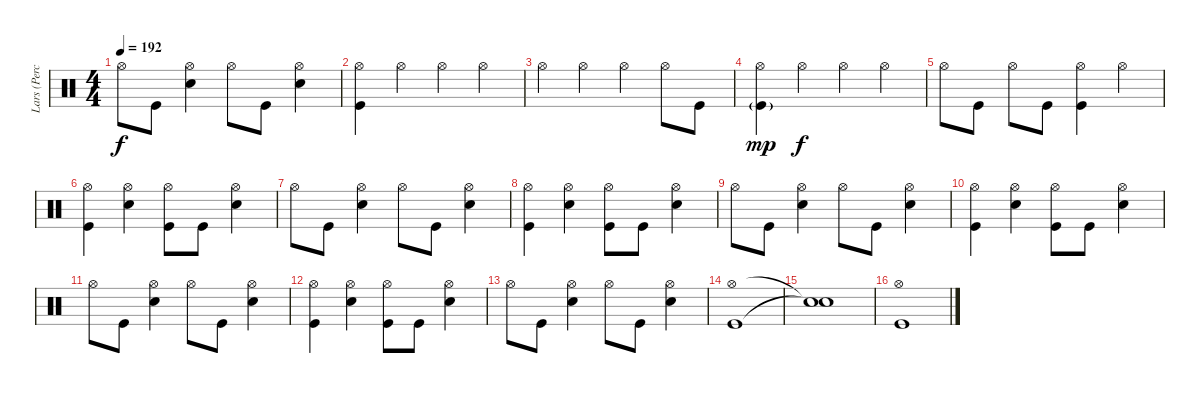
\track ("Lars (Percussion)" "Lars (Perc") {instrument percussion}
\staff {score}
\articulation defaults
\ts (4 4)
\tempo 192
\clef neutral
\ks c "Hi-Hat (open)".8{dy f} "Kick (hit)".8
("Hi-Hat (open)" "Snare (hit) 2").4 "Hi-Hat (open)".8 "Kick (hit)".8 ("Hi-Hat (open)" "Snare (hit) 2").4 |
("Hi-Hat (open)" "Kick (hit)").4 "Hi-Hat (open)".4 "Hi-Hat (open)".4 "Hi-Hat (open)".4 |
"Hi-Hat (open)".4 "Hi-Hat (open)".4 "Hi-Hat (open)".4 "Hi-Hat (open)".8 "Kick (hit)".8 |
("Hi-Hat (open)" "Kick (hit)"{g}).4{dy mp} "Hi-Hat (open)".4{dy f} "Hi-Hat (open)".4 "Hi-Hat (open)".4 |
"Hi-Hat (open)".8 "Kick (hit)".8 "Hi-Hat (open)".8 "Kick (hit)".8 ("Hi-Hat (open)" "Kick (hit)").4 "Hi-Hat (open)".4 |
("Hi-Hat (open)" "Kick (hit)").4 ("Hi-Hat (open)" "Snare (hit) 2").4 ("Hi-Hat (open)" "Kick (hit)").8 "Kick (hit)".8 ("Hi-Hat (open)" "Snare (hit) 2").4 |
"Hi-Hat (open)".8 "Kick (hit)".8 ("Hi-Hat (open)" "Snare (hit) 2").4 "Hi-Hat (open)".8 "Kick (hit)".8 ("Hi-Hat (open)" "Snare (hit) 2").4 |
("Hi-Hat (open)" "Kick (hit)").4 ("Hi-Hat (open)" "Snare (hit) 2").4 ("Hi-Hat (open)" "Kick (hit)").8 "Kick (hit)".8 ("Hi-Hat (open)" "Snare (hit) 2").4 |
"Hi-Hat (open)".8 "Kick (hit)".8 ("Hi-Hat (open)" "Snare (hit) 2").4 "Hi-Hat (open)".8 "Kick (hit)".8 ("Hi-Hat (open)" "Snare (hit) 2").4 |
("Hi-Hat (open)" "Kick (hit)").4 ("Hi-Hat (open)" "Snare (hit) 2").4 ("Hi-Hat (open)" "Kick (hit)").8 "Kick (hit)".8 ("Hi-Hat (open)" "Snare (hit) 2").4 |
"Hi-Hat (open)".8 "Kick (hit)".8 ("Hi-Hat (open)" "Snare (hit) 2").4 "Hi-Hat (open)".8 "Kick (hit)".8 ("Hi-Hat (open)" "Snare (hit) 2").4 |
("Hi-Hat (open)" "Kick (hit)").4 ("Hi-Hat (open)" "Snare (hit) 2").4 ("Hi-Hat (open)" "Kick (hit)").8 "Kick (hit)".8 ("Hi-Hat (open)" "Snare (hit) 2").4 |
"Hi-Hat (open)".8 "Kick (hit)".8 ("Hi-Hat (open)" "Snare (hit) 2").4 "Hi-Hat (open)".8 "Kick (hit)".8 ("Hi-Hat (open)" "Snare (hit) 2").4 |
("Hi-Hat (open)" "Kick (hit)").1 |
("Snare (hit)"{t} "Snare (hit)"{t}).1 |
("Hi-Hat (open)" "Kick (hit)").1
